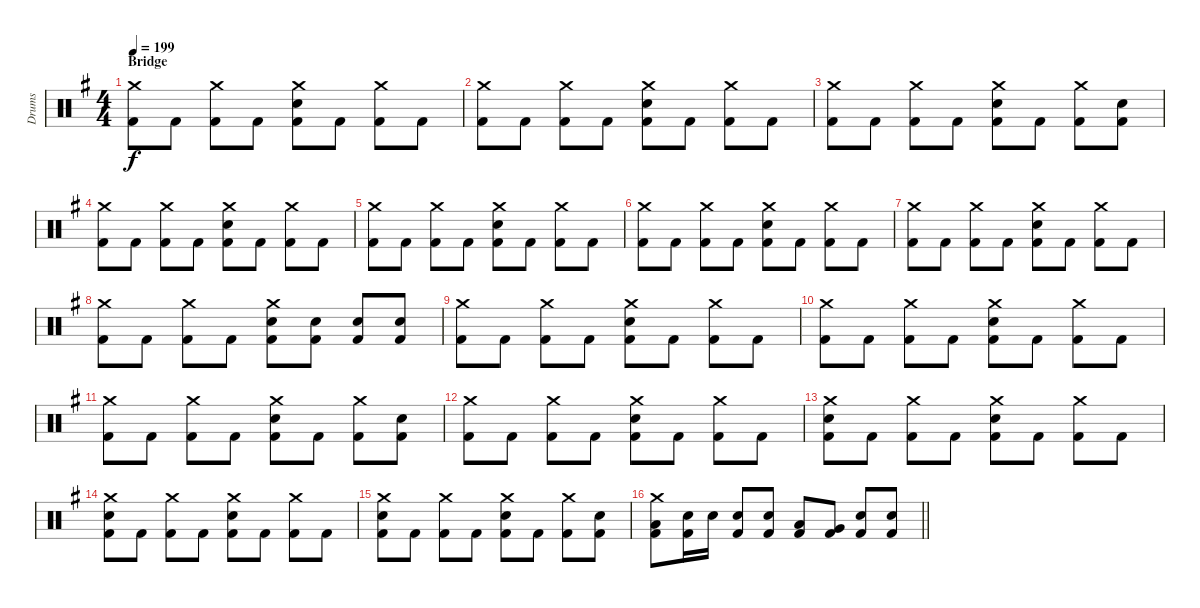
\track ("Drums" "Drums") {instrument percussion}
\staff {score}
\articulation defaults
\ts (4 4)
\section ("" "Bridge")
\tempo 199
\clef neutral
\ks eminor
("Crash medium (hit)" "Kick (hit) 2").8{dy f} "Kick (hit) 2".8 ("Crash medium (hit)" "Kick (hit) 2").8 "Kick (hit) 2".8 ("Crash medium (hit)" "Electric Snare (hit)" "Kick (hit) 2").8 "Kick (hit) 2".8 ("Crash medium (hit)" "Kick (hit) 2").8 "Kick (hit) 2".8 |
("Crash medium (hit)" "Kick (hit) 2").8 "Kick (hit) 2".8 ("Crash medium (hit)" "Kick (hit) 2").8 "Kick (hit) 2".8 ("Crash medium (hit)" "Electric Snare (hit)" "Kick (hit) 2").8 "Kick (hit) 2".8 ("Crash medium (hit)" "Kick (hit) 2").8 "Kick (hit) 2".8 |
("Crash medium (hit)" "Kick (hit) 2").8 "Kick (hit) 2".8 ("Crash medium (hit)" "Kick (hit) 2").8 "Kick (hit) 2".8 ("Crash medium (hit)" "Electric Snare (hit)" "Kick (hit) 2").8 "Kick (hit) 2".8 ("Crash medium (hit)" "Kick (hit) 2").8 ("Electric Snare (hit)" "Kick (hit) 2").8 |
("Crash medium (hit)" "Kick (hit) 2").8 "Kick (hit) 2".8 ("Crash medium (hit)" "Kick (hit) 2").8 "Kick (hit) 2".8 ("Crash medium (hit)" "Electric Snare (hit)" "Kick (hit) 2").8 "Kick (hit) 2".8 ("Crash medium (hit)" "Kick (hit) 2").8 "Kick (hit) 2".8 |
("Crash medium (hit)" "Kick (hit) 2").8 "Kick (hit) 2".8 ("Crash medium (hit)" "Kick (hit) 2").8 "Kick (hit) 2".8 ("Crash medium (hit)" "Electric Snare (hit)" "Kick (hit) 2").8 "Kick (hit) 2".8 ("Crash medium (hit)" "Kick (hit) 2").8 "Kick (hit) 2".8 |
("Crash medium (hit)" "Kick (hit) 2").8 "Kick (hit) 2".8 ("Crash medium (hit)" "Kick (hit) 2").8 "Kick (hit) 2".8 ("Crash medium (hit)" "Electric Snare (hit)" "Kick (hit) 2").8 "Kick (hit) 2".8 ("Crash medium (hit)" "Kick (hit) 2").8 "Kick (hit) 2".8 |
("Crash medium (hit)" "Kick (hit) 2").8 "Kick (hit) 2".8 ("Crash medium (hit)" "Kick (hit) 2").8 "Kick (hit) 2".8 ("Crash medium (hit)" "Electric Snare (hit)" "Kick (hit) 2").8 "Kick (hit) 2".8 ("Crash medium (hit)" "Kick (hit) 2").8 "Kick (hit) 2".8 |
("Crash medium (hit)" "Kick (hit) 2").8 "Kick (hit) 2".8 ("Crash medium (hit)" "Kick (hit) 2").8 "Kick (hit) 2".8 ("Crash medium (hit)" "Electric Snare (hit)" "Kick (hit) 2").8 ("Electric Snare (hit)" "Kick (hit) 2").8 ("Electric Snare (hit)" "Kick (hit) 2").8 ("Electric Snare (hit)" "Kick (hit) 2").8 |
("Crash medium (hit)" "Kick (hit) 2").8 "Kick (hit) 2".8 ("Crash medium (hit)" "Kick (hit) 2").8 "Kick (hit) 2".8 ("Crash medium (hit)" "Electric Snare (hit)" "Kick (hit) 2").8 "Kick (hit) 2".8 ("Crash medium (hit)" "Kick (hit) 2").8 "Kick (hit) 2".8 |
("Crash medium (hit)" "Kick (hit) 2").8 "Kick (hit) 2".8 ("Crash medium (hit)" "Kick (hit) 2").8 "Kick (hit) 2".8 ("Crash medium (hit)" "Electric Snare (hit)" "Kick (hit) 2").8 "Kick (hit) 2".8 ("Crash medium (hit)" "Kick (hit) 2").8 "Kick (hit) 2".8 |
("Crash medium (hit)" "Kick (hit) 2").8 "Kick (hit) 2".8 ("Crash medium (hit)" "Kick (hit) 2").8 "Kick (hit) 2".8 ("Crash medium (hit)" "Electric Snare (hit)" "Kick (hit) 2").8 "Kick (hit) 2".8 ("Crash medium (hit)" "Kick (hit) 2").8 ("Electric Snare (hit)" "Kick (hit) 2").8 |
("Crash medium (hit)" "Kick (hit) 2").8 "Kick (hit) 2".8 ("Crash medium (hit)" "Kick (hit) 2").8 "Kick (hit) 2".8 ("Crash medium (hit)" "Electric Snare (hit)" "Kick (hit) 2").8 "Kick (hit) 2".8 ("Crash medium (hit)" "Kick (hit) 2").8 "Kick (hit) 2".8 |
("Crash medium (hit)" "Electric Snare (hit)" "Kick (hit) 2").8 "Kick (hit) 2".8 ("Crash medium (hit)" "Kick (hit) 2").8 "Kick (hit) 2".8 ("Crash medium (hit)" "Electric Snare (hit)" "Kick (hit) 2").8 "Kick (hit) 2".8 ("Crash medium (hit)" "Kick (hit) 2").8 "Kick (hit) 2".8 |
("Crash medium (hit)" "Electric Snare (hit)" "Kick (hit) 2").8 "Kick (hit) 2".8 ("Crash medium (hit)" "Kick (hit) 2").8 "Kick (hit) 2".8 ("Crash medium (hit)" "Electric Snare (hit)" "Kick (hit) 2").8 "Kick (hit) 2".8 ("Crash medium (hit)" "Kick (hit) 2").8 "Kick (hit) 2".8 |
("Crash medium (hit)" "Electric Snare (hit)" "Kick (hit) 2").8 "Kick (hit) 2".8 ("Crash medium (hit)" "Kick (hit) 2").8 "Kick (hit) 2".8 ("Crash medium (hit)" "Electric Snare (hit)" "Kick (hit) 2").8 "Kick (hit) 2".8 ("Crash medium (hit)" "Kick (hit) 2").8 ("Electric Snare (hit)" "Kick (hit) 2").8 |
\barLineRight lightlight
("Crash medium (hit)" "Low Tom (hit)" "Kick (hit) 2").8 ("Electric Snare (hit)" "Kick (hit) 2").16 "Electric Snare (hit)".16 ("Electric Snare (hit)" "Kick (hit) 2").8 ("Electric Snare (hit)" "Kick (hit) 2").8 ("Low Tom (hit)" "Kick (hit) 2").8 ("Very Low Tom (hit)" "Kick (hit) 2").8 ("Electric Snare (hit)" "Kick (hit) 2").8 ("Electric Snare (hit)" "Kick (hit) 2").8
